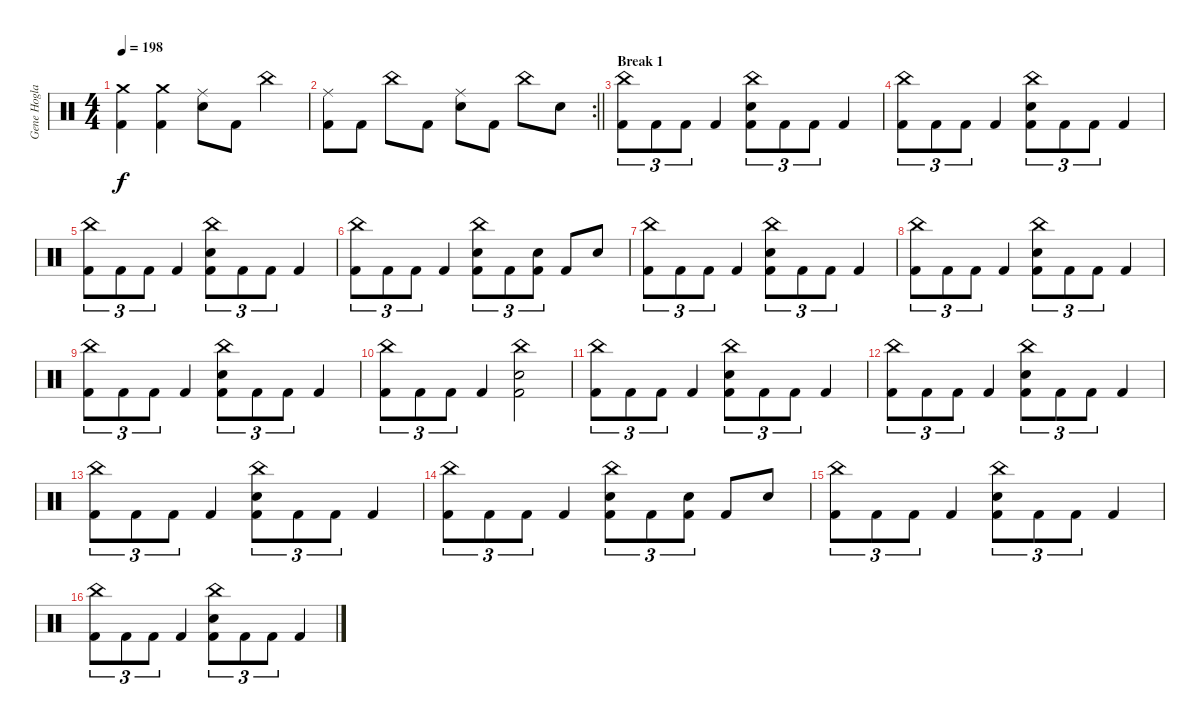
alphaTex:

\track ("Gene Hoglan" "Gene Hogla") {instrument percussion}
\staff {score}
\articulation defaults
\ts (4 4)
\tempo 198
\clef neutral
\ks c
("Crash medium (hit)" "Kick (hit) 2").4{dy f} ("Crash medium (hit)" "Kick (hit) 2").4 ("Ride (middle)" "Snare (hit) 2").8 "Kick (hit) 2".8 "China (hit)".4 |
\rc 2
\barLineRight lightlight
("Ride (middle)" "Kick (hit) 2").8 "Kick (hit) 2".8 "China (hit)".8 "Kick (hit) 2".8 ("Ride (middle)" "Snare (hit) 2").8 "Kick (hit) 2".8 "China (hit)".8 "Snare (hit) 2".8 |
\section ("" "Break 1")
("China (hit)" "Kick (hit) 2").8{tu (3 2)} "Kick (hit) 2".8{tu (3 2)} "Kick (hit) 2".8{tu (3 2)} "Kick (hit) 2".4 ("China (hit)" "Snare (hit) 2" "Kick (hit) 2").8{tu (3 2)} "Kick (hit) 2".8{tu (3 2)} "Kick (hit) 2".8{tu (3 2)} "Kick (hit) 2".4 |
("China (hit)" "Kick (hit) 2").8{tu (3 2)} "Kick (hit) 2".8{tu (3 2)} "Kick (hit) 2".8{tu (3 2)} "Kick (hit) 2".4 ("China (hit)" "Snare (hit) 2" "Kick (hit) 2").8{tu (3 2)} "Kick (hit) 2".8{tu (3 2)} "Kick (hit) 2".8{tu (3 2)} "Kick (hit) 2".4 |
("China (hit)" "Kick (hit) 2").8{tu (3 2)} "Kick (hit) 2".8{tu (3 2)} "Kick (hit) 2".8{tu (3 2)} "Kick (hit) 2".4 ("China (hit)" "Snare (hit) 2" "Kick (hit) 2").8{tu (3 2)} "Kick (hit) 2".8{tu (3 2)} "Kick (hit) 2".8{tu (3 2)} "Kick (hit) 2".4 |
("China (hit)" "Kick (hit) 2").8{tu (3 2)} "Kick (hit) 2".8{tu (3 2)} "Kick (hit) 2".8{tu (3 2)} "Kick (hit) 2".4 ("China (hit)" "Snare (hit) 2" "Kick (hit) 2").8{tu (3 2)} "Kick (hit) 2".8{tu (3 2)} ("Snare (hit) 2" "Kick (hit) 2").8{tu (3 2)} "Kick (hit) 2".8 "Snare (hit) 2".8 |
("China (hit)" "Kick (hit) 2").8{tu (3 2)} "Kick (hit) 2".8{tu (3 2)} "Kick (hit) 2".8{tu (3 2)} "Kick (hit) 2".4 ("China (hit)" "Snare (hit) 2" "Kick (hit) 2").8{tu (3 2)} "Kick (hit) 2".8{tu (3 2)} "Kick (hit) 2".8{tu (3 2)} "Kick (hit) 2".4 |
("China (hit)" "Kick (hit) 2").8{tu (3 2)} "Kick (hit) 2".8{tu (3 2)} "Kick (hit) 2".8{tu (3 2)} "Kick (hit) 2".4 ("China (hit)" "Snare (hit) 2" "Kick (hit) 2").8{tu (3 2)} "Kick (hit) 2".8{tu (3 2)} "Kick (hit) 2".8{tu (3 2)} "Kick (hit) 2".4 |
("China (hit)" "Kick (hit) 2").8{tu (3 2)} "Kick (hit) 2".8{tu (3 2)} "Kick (hit) 2".8{tu (3 2)} "Kick (hit) 2".4 ("China (hit)" "Snare (hit) 2" "Kick (hit) 2").8{tu (3 2)} "Kick (hit) 2".8{tu (3 2)} "Kick (hit) 2".8{tu (3 2)} "Kick (hit) 2".4 |
("China (hit)" "Kick (hit) 2").8{tu (3 2)} "Kick (hit) 2".8{tu (3 2)} "Kick (hit) 2".8{tu (3 2)} "Kick (hit) 2".4 ("China (hit)" "Snare (hit) 2" "Kick (hit) 2").2 |
("China (hit)" "Kick (hit) 2").8{tu (3 2)} "Kick (hit) 2".8{tu (3 2)} "Kick (hit) 2".8{tu (3 2)} "Kick (hit) 2".4 ("China (hit)" "Snare (hit) 2" "Kick (hit) 2").8{tu (3 2)} "Kick (hit) 2".8{tu (3 2)} "Kick (hit) 2".8{tu (3 2)} "Kick (hit) 2".4 |
("China (hit)" "Kick (hit) 2").8{tu (3 2)} "Kick (hit) 2".8{tu (3 2)} "Kick (hit) 2".8{tu (3 2)} "Kick (hit) 2".4 ("China (hit)" "Snare (hit) 2" "Kick (hit) 2").8{tu (3 2)} "Kick (hit) 2".8{tu (3 2)} "Kick (hit) 2".8{tu (3 2)} "Kick (hit) 2".4 |
("China (hit)" "Kick (hit) 2").8{tu (3 2)} "Kick (hit) 2".8{tu (3 2)} "Kick (hit) 2".8{tu (3 2)} "Kick (hit) 2".4 ("China (hit)" "Snare (hit) 2" "Kick (hit) 2").8{tu (3 2)} "Kick (hit) 2".8{tu (3 2)} "Kick (hit) 2".8{tu (3 2)} "Kick (hit) 2".4 |
("China (hit)" "Kick (hit) 2").8{tu (3 2)} "Kick (hit) 2".8{tu (3 2)} "Kick (hit) 2".8{tu (3 2)} "Kick (hit) 2".4 ("China (hit)" "Snare (hit) 2" "Kick (hit) 2").8{tu (3 2)} "Kick (hit) 2".8{tu (3 2)} ("Snare (hit) 2" "Kick (hit) 2").8{tu (3 2)} "Kick (hit) 2".8 "Snare (hit) 2".8 |
("China (hit)" "Kick (hit) 2").8{tu (3 2)} "Kick (hit) 2".8{tu (3 2)} "Kick (hit) 2".8{tu (3 2)} "Kick (hit) 2".4 ("China (hit)" "Snare (hit) 2" "Kick (hit) 2").8{tu (3 2)} "Kick (hit) 2".8{tu (3 2)} "Kick (hit) 2".8{tu (3 2)} "Kick (hit) 2".4 |
("China (hit)" "Kick (hit) 2").8{tu (3 2)} "Kick (hit) 2".8{tu (3 2)} "Kick (hit) 2".8{tu (3 2)} "Kick (hit) 2".4 ("China (hit)" "Snare (hit) 2" "Kick (hit) 2").8{tu (3 2)} "Kick (hit) 2".8{tu (3 2)} "Kick (hit) 2".8{tu (3 2)} "Kick (hit) 2".4
